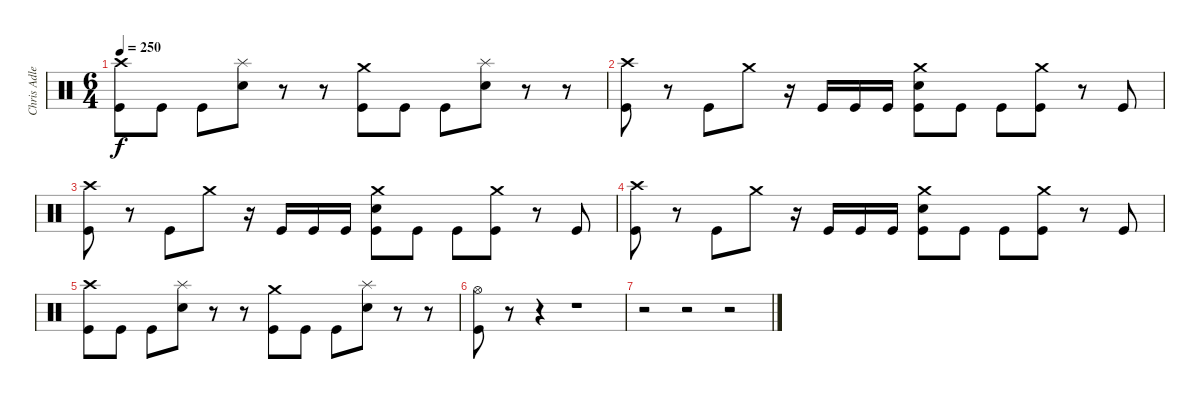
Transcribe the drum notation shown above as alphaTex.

\track ("Chris Adler" "Chris Adle") {instrument percussion}
\staff {score}
\articulation defaults
\ts (6 4)
\tempo 250
\clef neutral
\ks c
("Crash high (hit)" "Kick (hit)").8{dy f} "Kick (hit)".8 "Kick (hit)".8 ("Splash (hit)" "Electric Snare (hit)").8 r.8 r.8 ("Crash medium (hit)" "Kick (hit)").8 "Kick (hit)".8 "Kick (hit)".8 ("Splash (hit)" "Electric Snare (hit)").8 r.8 r.8 |
("Crash high (hit)" "Kick (hit)").8 r.8 "Kick (hit)".8 "Crash medium (hit)".8 r.16 "Kick (hit)".16 "Kick (hit)".16 "Kick (hit)".16 ("Crash medium (hit)" "Electric Snare (hit)" "Kick (hit)").8 "Kick (hit)".8 "Kick (hit)".8 ("Crash medium (hit)" "Kick (hit)").8 r.8 "Kick (hit)".8 |
("Crash high (hit)" "Kick (hit)").8 r.8 "Kick (hit)".8 "Crash medium (hit)".8 r.16 "Kick (hit)".16 "Kick (hit)".16 "Kick (hit)".16 ("Crash medium (hit)" "Electric Snare (hit)" "Kick (hit)").8 "Kick (hit)".8 "Kick (hit)".8 ("Crash medium (hit)" "Kick (hit)").8 r.8 "Kick (hit)".8 |
("Crash high (hit)" "Kick (hit)").8 r.8 "Kick (hit)".8 "Crash medium (hit)".8 r.16 "Kick (hit)".16 "Kick (hit)".16 "Kick (hit)".16 ("Crash medium (hit)" "Electric Snare (hit)" "Kick (hit)").8 "Kick (hit)".8 "Kick (hit)".8 ("Crash medium (hit)" "Kick (hit)").8 r.8 "Kick (hit)".8 |
("Crash high (hit)" "Kick (hit)").8 "Kick (hit)".8 "Kick (hit)".8 ("Splash (hit)" "Electric Snare (hit)").8 r.8 r.8 ("Crash medium (hit)" "Kick (hit)").8 "Kick (hit)".8 "Kick (hit)".8 ("Splash (hit)" "Electric Snare (hit)").8 r.8 r.8 |
("Hi-Hat (open)" "Kick (hit)").8 r.8 r.4 r.1 |
r.2 r.2 r.2
